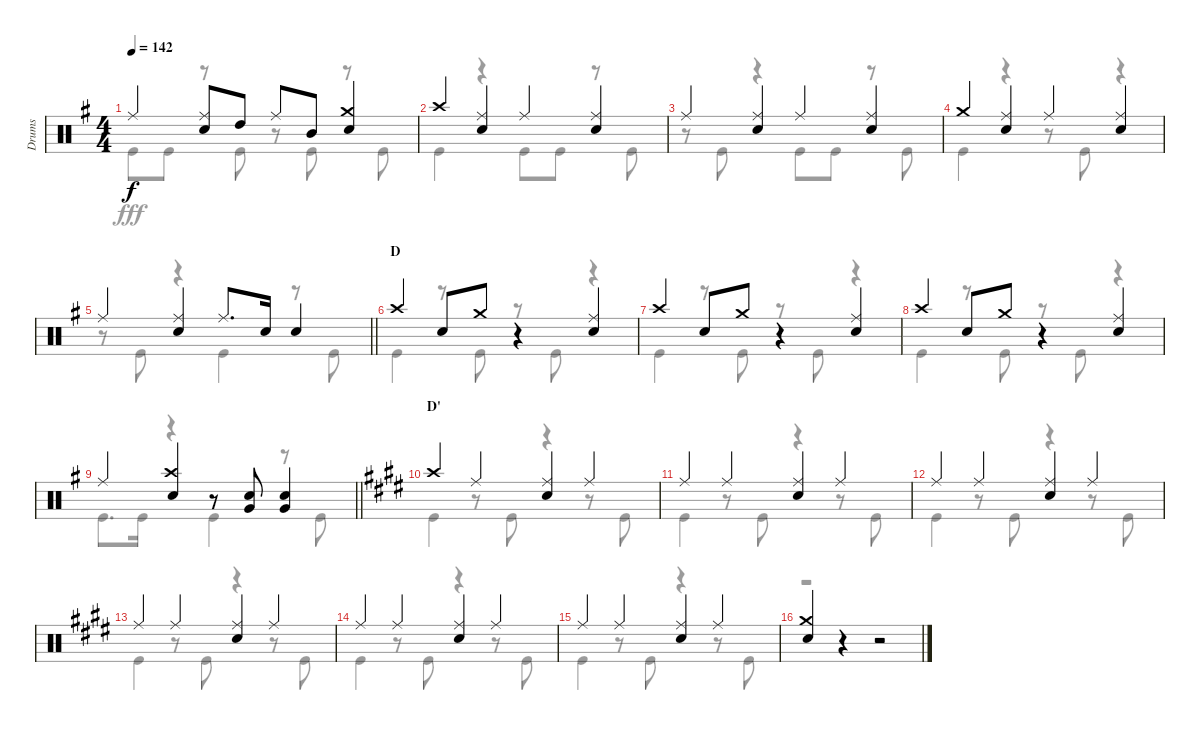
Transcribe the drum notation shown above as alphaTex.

\track ("Drums" "Drums") {instrument percussion}
\staff {score}
\articulation defaults
\voice
\ts (4 4)
\tempo 142
\clef neutral
\ks g "Ride (middle)".4{dy f}
("Ride (middle)" "Snare (hit) 2").8 "High Tom (hit)".8 "Ride (middle)".8 "Mid Tom (hit)".8 ("Crash medium (hit)" "Snare (hit) 2").4 |
"Crash high (hit)".4 ("Ride (middle)" "Snare (hit) 2").4 "Ride (middle)".4 ("Ride (middle)" "Snare (hit) 2").4 |
"Ride (middle)".4 ("Ride (middle)" "Snare (hit) 2").4 "Ride (middle)".4 ("Ride (middle)" "Snare (hit) 2").4 |
"Crash medium (hit)".4 ("Ride (middle)" "Snare (hit) 2").4 "Ride (middle)".4 ("Ride (middle)" "Snare (hit) 2").4 |
\barLineRight lightlight "Ride (middle)".4
("Ride (middle)" "Snare (hit) 2").4 "Ride (middle)".8{d} "Snare (hit) 2".16 "Snare (hit) 2".4 |
\section ("" "D")
"Crash high (hit)".4 "Snare (hit) 2".8 "Crash medium (hit)".8 r.4 ("Ride (middle)" "Snare (hit) 2").4 |
"Crash high (hit)".4 "Snare (hit) 2".8 "Crash medium (hit)".8 r.4 ("Ride (middle)" "Snare (hit) 2").4 |
"Crash high (hit)".4 "Snare (hit) 2".8 "Crash medium (hit)".8 r.4 ("Ride (middle)" "Snare (hit) 2").4 |
\barLineRight lightlight "Ride (middle)".4
("Crash high (hit)" "Snare (hit) 2").4 r.8 ("Snare (hit) 2" "Very Low Tom (hit)").8 ("Snare (hit) 2" "Very Low Tom (hit)").4 |
\section ("" "D'")
\ks e "Crash high (hit)".4 "Ride (middle)".4
("Ride (middle)" "Snare (hit) 2").4 "Ride (middle)".4 |
"Ride (middle)".4 "Ride (middle)".4 ("Ride (middle)" "Snare (hit) 2").4 "Ride (middle)".4 |
"Ride (middle)".4 "Ride (middle)".4 ("Ride (middle)" "Snare (hit) 2").4 "Ride (middle)".4 |
"Ride (middle)".4 "Ride (middle)".4 ("Ride (middle)" "Snare (hit) 2").4 "Ride (middle)".4 |
"Ride (middle)".4 "Ride (middle)".4 ("Ride (middle)" "Snare (hit) 2").4 "Ride (middle)".4 |
"Ride (middle)".4 "Ride (middle)".4 ("Ride (middle)" "Snare (hit) 2").4 "Ride (middle)".4 |
("Crash medium (hit)" "Snare (hit) 2").4 r.4 r.2
\voice
\clef neutral
\ottava regular
\simile none
\ks g "Kick (hit)".8{dy fff} "Kick (hit)".8
r.8 "Kick (hit)".8 r.8 "Kick (hit)".8 r.8 "Kick (hit)".8 |
"Kick (hit)".4 r.4 "Kick (hit)".8 "Kick (hit)".8 r.8 "Kick (hit)".8 |
r.8 "Kick (hit)".8 r.4 "Kick (hit)".8 "Kick (hit)".8 r.8 "Kick (hit)".8 |
"Kick (hit)".4 r.4 r.8 "Kick (hit)".8 r.4 |
\barLineRight lightlight
r.8 "Kick (hit)".8 r.4 "Kick (hit)".4 r.8 "Kick (hit)".8 |
"Kick (hit)".4 r.8 "Kick (hit)".8 r.8 "Kick (hit)".8 r.4 |
"Kick (hit)".4 r.8 "Kick (hit)".8 r.8 "Kick (hit)".8 r.4 |
"Kick (hit)".4 r.8 "Kick (hit)".8 r.8 "Kick (hit)".8 r.4 |
\barLineRight lightlight "Kick (hit)".8{d} "Kick (hit)".16
r.4 "Kick (hit)".4 r.8 "Kick (hit)".8 |
\ks e "Kick (hit)".4
r.8 "Kick (hit)".8 r.4 r.8 "Kick (hit)".8 |
"Kick (hit)".4 r.8 "Kick (hit)".8 r.4 r.8 "Kick (hit)".8 |
"Kick (hit)".4 r.8 "Kick (hit)".8 r.4 r.8 "Kick (hit)".8 |
"Kick (hit)".4 r.8 "Kick (hit)".8 r.4 r.8 "Kick (hit)".8 |
"Kick (hit)".4 r.8 "Kick (hit)".8 r.4 r.8 "Kick (hit)".8 |
"Kick (hit)".4 r.8 "Kick (hit)".8 r.4 r.8 "Kick (hit)".8 |
r.1
